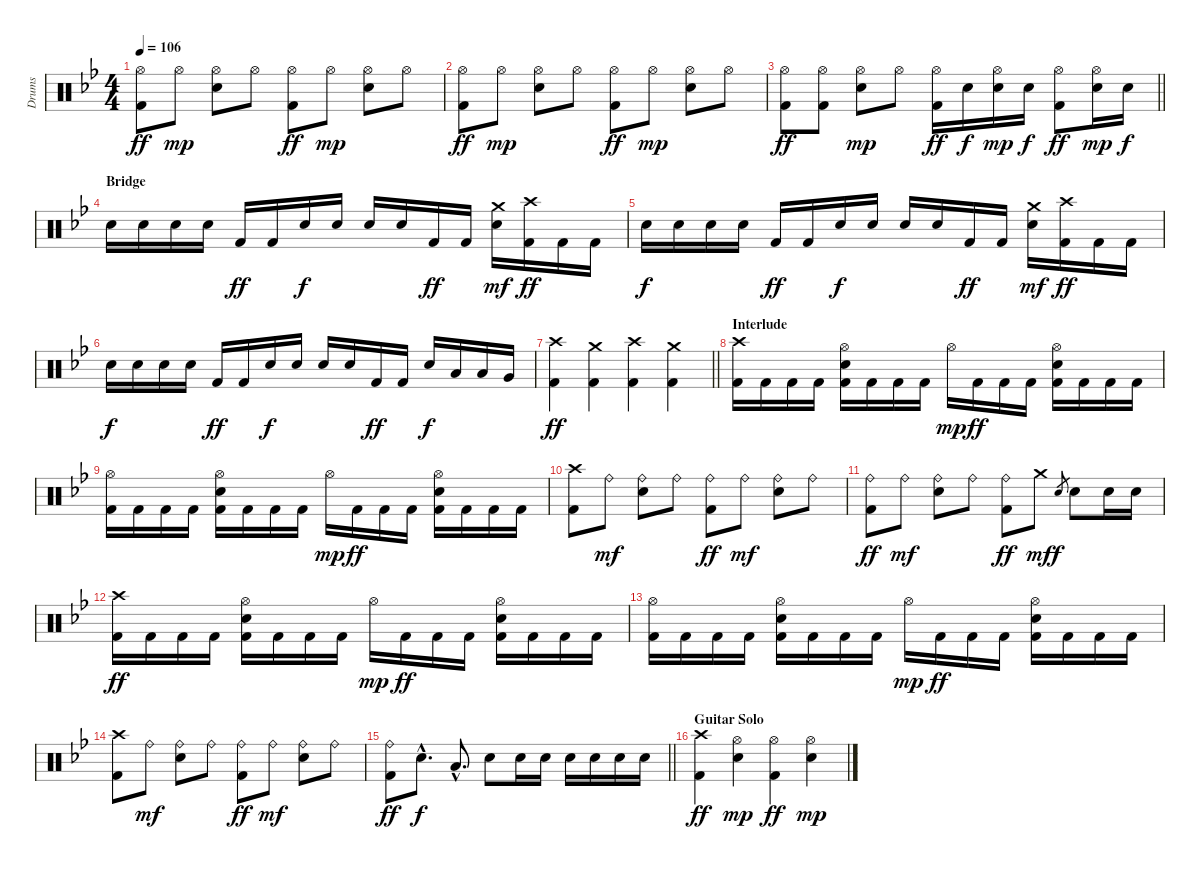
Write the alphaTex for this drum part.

\track ("Drums" "Drums") {instrument percussion}
\staff {score}
\articulation defaults
\ts (4 4)
\tempo 106
\clef neutral
\ks bb
("Hi-Hat (open)" "Kick (hit) 2").8{dy ff} "Hi-Hat (open)".8{dy mp} ("Hi-Hat (open)" "Electric Snare (hit)").8 "Hi-Hat (open)".8 ("Hi-Hat (open)" "Kick (hit) 2").8{dy ff} "Hi-Hat (open)".8{dy mp} ("Hi-Hat (open)" "Electric Snare (hit)").8 "Hi-Hat (open)".8 |
("Hi-Hat (open)" "Kick (hit) 2").8{dy ff} "Hi-Hat (open)".8{dy mp} ("Hi-Hat (open)" "Electric Snare (hit)").8 "Hi-Hat (open)".8 ("Hi-Hat (open)" "Kick (hit) 2").8{dy ff} "Hi-Hat (open)".8{dy mp} ("Hi-Hat (open)" "Electric Snare (hit)").8 "Hi-Hat (open)".8 |
\barLineRight lightlight
("Hi-Hat (open)" "Kick (hit) 2").8{dy ff} ("Hi-Hat (open)" "Kick (hit) 2").8 ("Hi-Hat (open)" "Electric Snare (hit)").8{dy mp} "Hi-Hat (open)".8 ("Hi-Hat (open)" "Kick (hit) 2").16{dy ff} "Electric Snare (hit)".16{dy f} ("Hi-Hat (open)" "Electric Snare (hit)").16{dy mp} "Electric Snare (hit)".16{dy f} ("Hi-Hat (open)" "Kick (hit) 2").8{dy ff} ("Hi-Hat (open)" "Electric Snare (hit)").16{dy mp} "Electric Snare (hit)".16{dy f} |
\section ("" "Bridge")
"Electric Snare (hit)".16 "Electric Snare (hit)".16 "Electric Snare (hit)".16 "Electric Snare (hit)".16 "Kick (hit) 2".16{dy ff} "Kick (hit) 2".16 "Electric Snare (hit)".16{dy f} "Electric Snare (hit)".16 "Electric Snare (hit)".16 "Electric Snare (hit)".16 "Kick (hit) 2".16{dy ff} "Kick (hit) 2".16 ("Crash medium (hit)" "Electric Snare (hit)").16{dy mf} ("Crash high (hit)" "Kick (hit) 2").16{dy ff} "Kick (hit) 2".16 "Kick (hit) 2".16 |
"Electric Snare (hit)".16{dy f} "Electric Snare (hit)".16 "Electric Snare (hit)".16 "Electric Snare (hit)".16 "Kick (hit) 2".16{dy ff} "Kick (hit) 2".16 "Electric Snare (hit)".16{dy f} "Electric Snare (hit)".16 "Electric Snare (hit)".16 "Electric Snare (hit)".16 "Kick (hit) 2".16{dy ff} "Kick (hit) 2".16 ("Crash medium (hit)" "Electric Snare (hit)").16{dy mf} ("Crash high (hit)" "Kick (hit) 2").16{dy ff} "Kick (hit) 2".16 "Kick (hit) 2".16 |
"Electric Snare (hit)".16{dy f} "Electric Snare (hit)".16 "Electric Snare (hit)".16 "Electric Snare (hit)".16 "Kick (hit) 2".16{dy ff} "Kick (hit) 2".16 "Electric Snare (hit)".16{dy f} "Electric Snare (hit)".16 "Electric Snare (hit)".16 "Electric Snare (hit)".16 "Kick (hit) 2".16{dy ff} "Kick (hit) 2".16 "Electric Snare (hit)".16{dy f} "Low Tom (hit)".16 "Low Tom (hit)".16 "Very Low Tom (hit)".16 |
\barLineRight lightlight
("Crash high (hit)" "Kick (hit) 2").4{dy ff} ("Crash medium (hit)" "Kick (hit) 2").4 ("Crash high (hit)" "Kick (hit) 2").4 ("Crash medium (hit)" "Kick (hit) 2").4 |
\section ("" "Interlude")
("Crash high (hit)" "Kick (hit) 2").16 "Kick (hit) 2".16 "Kick (hit) 2".16 "Kick (hit) 2".16 ("Hi-Hat (open)" "Electric Snare (hit)" "Kick (hit) 2").16 "Kick (hit) 2".16 "Kick (hit) 2".16 "Kick (hit) 2".16 "Hi-Hat (open)".16{dy mp} "Kick (hit) 2".16{dy ff} "Kick (hit) 2".16 "Kick (hit) 2".16 ("Hi-Hat (open)" "Electric Snare (hit)" "Kick (hit) 2").16 "Kick (hit) 2".16 "Kick (hit) 2".16 "Kick (hit) 2".16 |
("Hi-Hat (open)" "Kick (hit) 2").16 "Kick (hit) 2".16 "Kick (hit) 2".16 "Kick (hit) 2".16 ("Hi-Hat (open)" "Electric Snare (hit)" "Kick (hit) 2").16 "Kick (hit) 2".16 "Kick (hit) 2".16 "Kick (hit) 2".16 "Hi-Hat (open)".16{dy mp} "Kick (hit) 2".16{dy ff} "Kick (hit) 2".16 "Kick (hit) 2".16 ("Hi-Hat (open)" "Electric Snare (hit)" "Kick (hit) 2").16 "Kick (hit) 2".16 "Kick (hit) 2".16 "Kick (hit) 2".16 |
("Crash high (hit)" "Kick (hit) 2").8 "Ride (bell)".8{dy mf} ("Ride (bell)" "Electric Snare (hit)").8 "Ride (bell)".8 ("Ride (bell)" "Kick (hit) 2").8{dy ff} "Ride (bell)".8{dy mf} ("Ride (bell)" "Electric Snare (hit)").8 "Ride (bell)".8 |
("Ride (bell)" "Kick (hit) 2").8{dy ff} "Ride (bell)".8{dy mf} ("Ride (bell)" "Electric Snare (hit)").8 "Ride (bell)".8 ("Ride (bell)" "Kick (hit) 2").8{dy ff} "Crash medium (hit)".8{dy mf} "Electric Snare (hit)".8{gr dy f} "Electric Snare (hit)".8 "Electric Snare (hit)".16 "Electric Snare (hit)".16 |
("Crash high (hit)" "Kick (hit) 2").16{dy ff} "Kick (hit) 2".16 "Kick (hit) 2".16 "Kick (hit) 2".16 ("Hi-Hat (open)" "Electric Snare (hit)" "Kick (hit) 2").16 "Kick (hit) 2".16 "Kick (hit) 2".16 "Kick (hit) 2".16 "Hi-Hat (open)".16{dy mp} "Kick (hit) 2".16{dy ff} "Kick (hit) 2".16 "Kick (hit) 2".16 ("Hi-Hat (open)" "Electric Snare (hit)" "Kick (hit) 2").16 "Kick (hit) 2".16 "Kick (hit) 2".16 "Kick (hit) 2".16 |
("Hi-Hat (open)" "Kick (hit) 2").16 "Kick (hit) 2".16 "Kick (hit) 2".16 "Kick (hit) 2".16 ("Hi-Hat (open)" "Electric Snare (hit)" "Kick (hit) 2").16 "Kick (hit) 2".16 "Kick (hit) 2".16 "Kick (hit) 2".16 "Hi-Hat (open)".16{dy mp} "Kick (hit) 2".16{dy ff} "Kick (hit) 2".16 "Kick (hit) 2".16 ("Hi-Hat (open)" "Electric Snare (hit)" "Kick (hit) 2").16 "Kick (hit) 2".16 "Kick (hit) 2".16 "Kick (hit) 2".16 |
("Crash high (hit)" "Kick (hit) 2").8 "Ride (bell)".8{dy mf} ("Ride (bell)" "Electric Snare (hit)").8 "Ride (bell)".8 ("Ride (bell)" "Kick (hit) 2").8{dy ff} "Ride (bell)".8{dy mf} ("Ride (bell)" "Electric Snare (hit)").8 "Ride (bell)".8 |
\barLineRight lightlight
("Ride (bell)" "Kick (hit) 2").8{dy ff} "Electric Snare (hit)"{hac}.8{d dy f} "Low Tom (hit)"{hac}.8{d} "Electric Snare (hit)".8 "Electric Snare (hit)".16 "Electric Snare (hit)".16 "Electric Snare (hit)".16 "Electric Snare (hit)".16 "Electric Snare (hit)".16 "Electric Snare (hit)".16 |
\section ("" "Guitar Solo")
("Crash high (hit)" "Kick (hit) 2").4{dy ff} ("Hi-Hat (open)" "Electric Snare (hit)").4{dy mp} ("Hi-Hat (open)" "Kick (hit) 2").4{dy ff} ("Hi-Hat (open)" "Electric Snare (hit)").4{dy mp}
